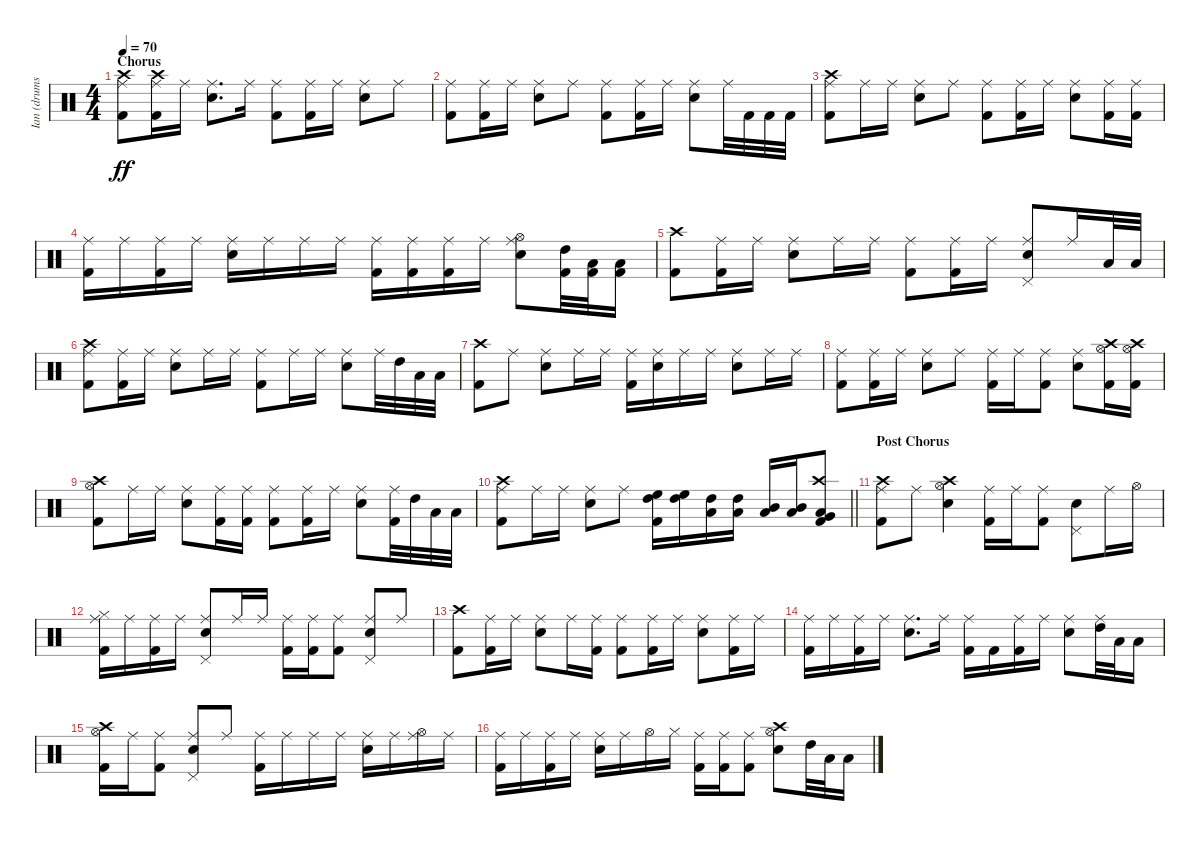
\track ("Ian (drums)" "Ian (drums") {instrument percussion}
\staff {score}
\articulation defaults
\ts (4 4)
\section ("" "Chorus")
\tempo 70
\clef neutral
\ks c
("Kick (hit) 2" "Crash high (hit)" "Ride (middle)").8{dy ff} ("Kick (hit) 2" "Crash high (hit)" "Ride (middle)").16 "Ride (middle)".16 ("Snare (hit) 2" "Ride (middle)").8{d} "Ride (middle)".16 ("Kick (hit) 2" "Ride (middle)").8 ("Kick (hit) 2" "Ride (middle)").16 "Ride (middle)".16 ("Snare (hit) 2" "Ride (middle)").8 "Ride (middle)".8 |
("Kick (hit) 2" "Ride (middle)").8 ("Kick (hit) 2" "Ride (middle)").16 "Ride (middle)".16 ("Snare (hit) 2" "Ride (middle)").8 "Ride (middle)".8 ("Kick (hit) 2" "Ride (middle)").8 ("Kick (hit) 2" "Ride (middle)").16 "Ride (middle)".16 ("Snare (hit) 2" "Ride (middle)").8 "Ride (middle)".32 "Kick (hit) 2".32 "Kick (hit) 2".32 "Kick (hit) 2".32 |
("Kick (hit) 2" "Crash high (hit)" "Ride (middle)").8 "Ride (middle)".16 "Ride (middle)".16 ("Snare (hit) 2" "Ride (middle)").8 "Ride (middle)".8 ("Kick (hit) 2" "Ride (middle)").8 ("Kick (hit) 2" "Ride (middle)").16 "Ride (middle)".16 ("Snare (hit) 2" "Ride (middle)").8 ("Kick (hit) 2" "Ride (middle)").16 ("Kick (hit) 2" "Ride (middle)").16 |
("Kick (hit) 2" "Ride (middle)").16 "Ride (middle)".16 ("Kick (hit) 2" "Ride (middle)").16 "Ride (middle)".16 ("Snare (hit) 2" "Ride (middle)").16 "Ride (middle)".16 "Ride (middle)".16 "Ride (middle)".16 ("Kick (hit) 2" "Ride (middle)").16 ("Kick (hit) 2" "Ride (middle)").16 ("Kick (hit) 2" "Ride (middle)").16 "Ride (middle)".16 ("Snare (hit) 2" "Hi-Hat (open)" "Ride (middle)").8 ("Kick (hit) 2" "High Tom (hit)").32 ("Kick (hit) 2" "Low Tom (hit)").32 ("Kick (hit) 2" "Low Floor Tom (hit)").16 |
("Kick (hit) 2" "Crash high (hit)").8 ("Kick (hit) 2" "Ride (middle)").16 "Ride (middle)".16 ("Snare (hit) 2" "Ride (middle)").8 "Ride (middle)".16 "Ride (middle)".16 ("Kick (hit) 2" "Ride (middle)").8 ("Kick (hit) 2" "Ride (middle)").16 "Ride (middle)".16 ("Snare (hit) 2" "Pedal Hi-Hat (hit)" "Ride (middle)").8 "Ride (middle)".16 "Low Floor Tom (hit)".32 "Low Floor Tom (hit)".32 |
("Kick (hit) 2" "Crash high (hit)" "Ride (middle)").8 ("Kick (hit) 2" "Ride (middle)").16 "Ride (middle)".16 ("Snare (hit) 2" "Ride (middle)").8 "Ride (middle)".16 "Ride (middle)".16 ("Kick (hit) 2" "Ride (middle)").8 "Ride (middle)".16 "Ride (middle)".16 ("Snare (hit) 2" "Ride (middle)").8 "Ride (middle)".32 "High Tom (hit)".32 "Low Tom (hit)".32 "Low Floor Tom (hit)".32 |
("Kick (hit) 2" "Crash high (hit)").8 "Ride (middle)".8 ("Snare (hit) 2" "Ride (middle)").8 "Ride (middle)".16 "Ride (middle)".16 ("Kick (hit) 2" "Ride (middle)").16 ("Snare (hit) 2" "Ride (middle)").16 "Ride (middle)".16 "Ride (middle)".16 ("Snare (hit) 2" "Ride (middle)").8 "Ride (middle)".16 "Ride (middle)".16 |
("Kick (hit) 2" "Ride (middle)").8 ("Kick (hit) 2" "Ride (middle)").16 "Ride (middle)".16 ("Snare (hit) 2" "Ride (middle)").8 "Ride (middle)".8 ("Kick (hit) 2" "Ride (middle)").16 "Ride (middle)".16 ("Kick (hit) 2" "Ride (middle)").8 ("Snare (hit) 2" "Ride (middle)").8 ("Kick (hit) 2" "Hi-Hat (open)" "Crash high (hit)").16 ("Kick (hit) 2" "Hi-Hat (open)" "Crash high (hit)").16 |
("Kick (hit) 2" "Hi-Hat (open)" "Crash high (hit)").8 "Ride (middle)".16 "Ride (middle)".16 ("Snare (hit) 2" "Ride (middle)").8 ("Kick (hit) 2" "Ride (middle)").16 ("Kick (hit) 2" "Ride (middle)").16 ("Kick (hit) 2" "Ride (middle)").8 ("Kick (hit) 2" "Ride (middle)").16 "Ride (middle)".16 ("Snare (hit) 2" "Ride (middle)").8 ("Kick (hit) 2" "Ride (middle)").32 "High Tom (hit)".32 "Low Tom (hit)".32 "Low Floor Tom (hit)".32 |
\barLineRight lightlight
("Kick (hit) 2" "Crash high (hit)" "Ride (middle)").8 "Ride (middle)".16 "Ride (middle)".16 ("Snare (hit) 2" "Ride (middle)").8 "Ride (middle)".8 ("High Tom (hit)" "Kick (hit) 2" "High Floor Tom (hit)").16 ("High Tom (hit)" "High Floor Tom (hit)").16 ("Low Tom (hit)" "High Tom (hit)").16 ("Low Tom (hit)" "High Tom (hit)").16 ("Low Tom (hit)" "Mid Tom (hit)").16 ("Low Tom (hit)" "Mid Tom (hit)").16 ("Low Floor Tom (hit)" "Kick (hit) 2" "Very Low Tom (hit)" "Crash high (hit)").8 |
\section ("" "Post Chorus")
("Kick (hit) 2" "Crash high (hit)" "Ride (middle)").8 "Ride (middle)".8 ("Snare (hit) 2" "Hi-Hat (open)" "Crash high (hit)").4 ("Kick (hit) 2" "Ride (middle)").16 "Ride (middle)".16 ("Kick (hit) 2" "Ride (middle)").8 ("Snare (hit) 2" "Pedal Hi-Hat (hit)").8 "Ride (middle)".16 "Hi-Hat (open)".16 |
("Kick (hit) 2" "Hi-Hat (closed)" "Ride (middle)").16 "Ride (middle)".16 ("Kick (hit) 2" "Ride (middle)").16 "Ride (middle)".16 ("Snare (hit) 2" "Pedal Hi-Hat (hit)" "Ride (middle)").8 "Ride (middle)".16 "Ride (middle)".16 ("Kick (hit) 2" "Ride (middle)").16 ("Kick (hit) 2" "Ride (middle)").16 ("Kick (hit) 2" "Ride (middle)").8 ("Snare (hit) 2" "Pedal Hi-Hat (hit)" "Ride (middle)").8 "Ride (middle)".8 |
("Kick (hit) 2" "Crash high (hit)").8 ("Kick (hit) 2" "Ride (middle)").16 "Ride (middle)".16 ("Snare (hit) 2" "Ride (middle)").8 "Ride (middle)".16 ("Kick (hit) 2" "Ride (middle)").16 ("Kick (hit) 2" "Ride (middle)").8 ("Kick (hit) 2" "Ride (middle)").16 "Ride (middle)".16 ("Snare (hit) 2" "Ride (middle)").8 ("Kick (hit) 2" "Ride (middle)").16 "Ride (middle)".16 |
("Kick (hit) 2" "Ride (middle)").16 "Ride (middle)".16 ("Kick (hit) 2" "Ride (middle)").16 "Ride (middle)".16 ("Snare (hit) 2" "Ride (middle)").8{d} "Ride (middle)".16 ("Kick (hit) 2" "Ride (middle)").16 "Kick (hit) 2".16 ("Kick (hit) 2" "Ride (middle)").16 "Ride (middle)".16 ("Snare (hit) 2" "Ride (middle)").8 ("High Tom (hit)" "Ride (middle)").32 "Low Tom (hit)".32 "Low Floor Tom (hit)".16 |
("Kick (hit) 2" "Hi-Hat (open)" "Crash high (hit)").16 "Ride (middle)".16 ("Kick (hit) 2" "Ride (middle)").8 ("Snare (hit) 2" "Pedal Hi-Hat (hit)" "Ride (middle)").8 "Ride (middle)".8 ("Kick (hit) 2" "Ride (middle)").16 "Ride (middle)".16 "Ride (middle)".16 "Ride (middle)".16 ("Snare (hit) 2" "Ride (middle)").16 "Ride (middle)".16 ("Hi-Hat (open)" "Ride (middle)").16 "Ride (middle)".16 |
("Kick (hit) 2" "Ride (middle)").16 "Ride (middle)".16 ("Kick (hit) 2" "Ride (middle)").16 "Ride (middle)".16 ("Snare (hit) 2" "Ride (middle)").16 "Ride (middle)".16 "Hi-Hat (open)".16 "Hi-Hat (closed)".16 ("Kick (hit) 2" "Ride (middle)").16 ("Kick (hit) 2" "Ride (middle)").16 ("Kick (hit) 2" "Ride (middle)").8 ("Snare (hit) 2" "Hi-Hat (open)" "Crash high (hit)").8 "High Tom (hit)".32 "Low Tom (hit)".32 "Low Floor Tom (hit)".16
